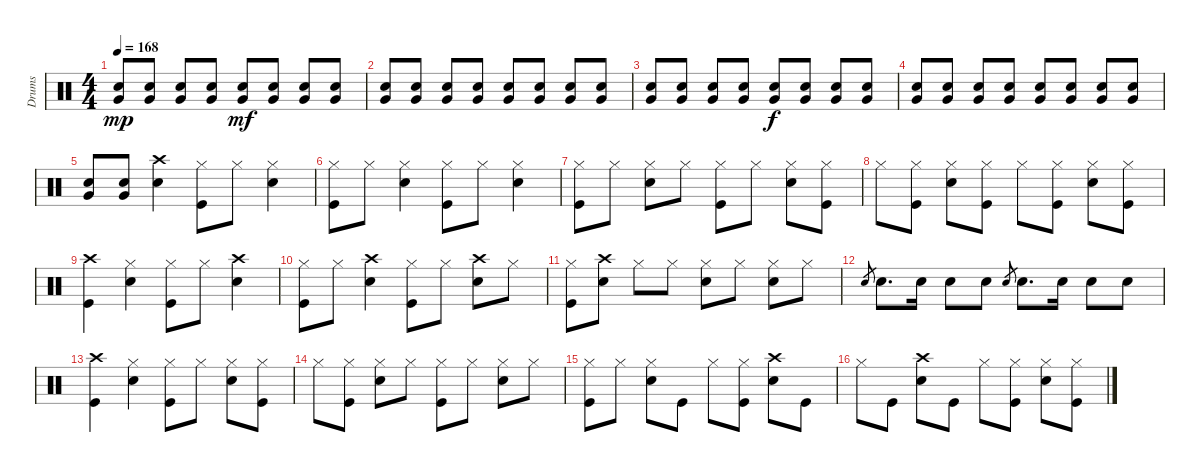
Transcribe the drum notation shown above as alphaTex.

\track ("Drums" "Drums") {instrument percussion}
\staff {score}
\articulation defaults
\ts (4 4)
\tempo 168
\clef neutral
\ks c
("Electric Snare (hit)" "Very Low Tom (hit)").8{dy mp} ("Electric Snare (hit)" "Very Low Tom (hit)").8 ("Electric Snare (hit)" "Very Low Tom (hit)").8 ("Electric Snare (hit)" "Very Low Tom (hit)").8 ("Electric Snare (hit)" "Very Low Tom (hit)").8{dy mf} ("Electric Snare (hit)" "Very Low Tom (hit)").8 ("Electric Snare (hit)" "Very Low Tom (hit)").8 ("Electric Snare (hit)" "Very Low Tom (hit)").8 |
("Electric Snare (hit)" "Very Low Tom (hit)").8 ("Electric Snare (hit)" "Very Low Tom (hit)").8 ("Electric Snare (hit)" "Very Low Tom (hit)").8 ("Electric Snare (hit)" "Very Low Tom (hit)").8 ("Electric Snare (hit)" "Very Low Tom (hit)").8 ("Electric Snare (hit)" "Very Low Tom (hit)").8 ("Electric Snare (hit)" "Very Low Tom (hit)").8 ("Electric Snare (hit)" "Very Low Tom (hit)").8 |
("Electric Snare (hit)" "Very Low Tom (hit)").8 ("Electric Snare (hit)" "Very Low Tom (hit)").8 ("Electric Snare (hit)" "Very Low Tom (hit)").8 ("Electric Snare (hit)" "Very Low Tom (hit)").8 ("Electric Snare (hit)" "Very Low Tom (hit)").8{dy f} ("Electric Snare (hit)" "Very Low Tom (hit)").8 ("Electric Snare (hit)" "Very Low Tom (hit)").8 ("Electric Snare (hit)" "Very Low Tom (hit)").8 |
("Electric Snare (hit)" "Very Low Tom (hit)").8 ("Electric Snare (hit)" "Very Low Tom (hit)").8 ("Electric Snare (hit)" "Very Low Tom (hit)").8 ("Electric Snare (hit)" "Very Low Tom (hit)").8 ("Electric Snare (hit)" "Very Low Tom (hit)").8 ("Electric Snare (hit)" "Very Low Tom (hit)").8 ("Electric Snare (hit)" "Very Low Tom (hit)").8 ("Electric Snare (hit)" "Very Low Tom (hit)").8 |
("Electric Snare (hit)" "Very Low Tom (hit)").8 ("Electric Snare (hit)" "Very Low Tom (hit)").8 ("Crash high (hit)" "Electric Snare (hit)").4 ("Hi-Hat (closed)" "Kick (hit)").8 "Hi-Hat (closed)".8 ("Hi-Hat (closed)" "Electric Snare (hit)").4 |
("Hi-Hat (closed)" "Kick (hit)").8 "Hi-Hat (closed)".8 ("Hi-Hat (closed)" "Electric Snare (hit)").4 ("Hi-Hat (closed)" "Kick (hit)").8 "Hi-Hat (closed)".8 ("Hi-Hat (closed)" "Electric Snare (hit)").4 |
("Hi-Hat (closed)" "Kick (hit)").8 "Hi-Hat (closed)".8 ("Hi-Hat (closed)" "Electric Snare (hit)").8 "Hi-Hat (closed)".8 ("Hi-Hat (closed)" "Kick (hit)").8 "Hi-Hat (closed)".8 ("Hi-Hat (closed)" "Electric Snare (hit)").8 ("Hi-Hat (closed)" "Kick (hit)").8 |
"Hi-Hat (closed)".8 ("Hi-Hat (closed)" "Kick (hit)").8 ("Hi-Hat (closed)" "Electric Snare (hit)").8 ("Hi-Hat (closed)" "Kick (hit)").8 "Hi-Hat (closed)".8 ("Hi-Hat (closed)" "Kick (hit)").8 ("Hi-Hat (closed)" "Electric Snare (hit)").8 ("Hi-Hat (closed)" "Kick (hit)").8 |
("Crash high (hit)" "Kick (hit)").4 ("Hi-Hat (closed)" "Electric Snare (hit)").4 ("Hi-Hat (closed)" "Kick (hit)").8 "Hi-Hat (closed)".8 ("Crash high (hit)" "Electric Snare (hit)").4 |
("Hi-Hat (closed)" "Kick (hit)").8 "Hi-Hat (closed)".8 ("Crash high (hit)" "Electric Snare (hit)").4 ("Hi-Hat (closed)" "Kick (hit)").8 "Hi-Hat (closed)".8 ("Crash high (hit)" "Electric Snare (hit)").8 "Hi-Hat (closed)".8 |
("Hi-Hat (closed)" "Kick (hit)").8 ("Crash high (hit)" "Electric Snare (hit)").8 "Hi-Hat (closed)".8 "Hi-Hat (closed)".8 ("Hi-Hat (closed)" "Electric Snare (hit)").8 "Hi-Hat (closed)".8 ("Hi-Hat (closed)" "Electric Snare (hit)").8 "Hi-Hat (closed)".8 |
"Electric Snare (hit)".8{gr} "Electric Snare (hit)".8{d} "Electric Snare (hit)".16 "Electric Snare (hit)".8 "Electric Snare (hit)".8 "Electric Snare (hit)".8{gr} "Electric Snare (hit)".8{d} "Electric Snare (hit)".16 "Electric Snare (hit)".8 "Electric Snare (hit)".8 |
("Crash high (hit)" "Kick (hit)").4 ("Hi-Hat (closed)" "Electric Snare (hit)").4 ("Hi-Hat (closed)" "Kick (hit)").8 "Hi-Hat (closed)".8 ("Hi-Hat (closed)" "Electric Snare (hit)").8 ("Hi-Hat (closed)" "Kick (hit)").8 |
"Hi-Hat (closed)".8 ("Hi-Hat (closed)" "Kick (hit)").8 ("Hi-Hat (closed)" "Electric Snare (hit)").8 "Hi-Hat (closed)".8 ("Hi-Hat (closed)" "Kick (hit)").8 "Hi-Hat (closed)".8 ("Hi-Hat (closed)" "Electric Snare (hit)").8 "Hi-Hat (closed)".8 |
("Hi-Hat (closed)" "Kick (hit)").8 "Hi-Hat (closed)".8 ("Hi-Hat (closed)" "Electric Snare (hit)").8 "Kick (hit)".8 "Hi-Hat (closed)".8 ("Hi-Hat (closed)" "Kick (hit)").8 ("Crash high (hit)" "Electric Snare (hit)").8 "Kick (hit)".8 |
"Hi-Hat (closed)".8 "Kick (hit)".8 ("Crash high (hit)" "Electric Snare (hit)").8 "Kick (hit)".8 "Hi-Hat (closed)".8 ("Hi-Hat (closed)" "Kick (hit)").8 ("Hi-Hat (closed)" "Electric Snare (hit)").8 ("Hi-Hat (closed)" "Kick (hit)").8
